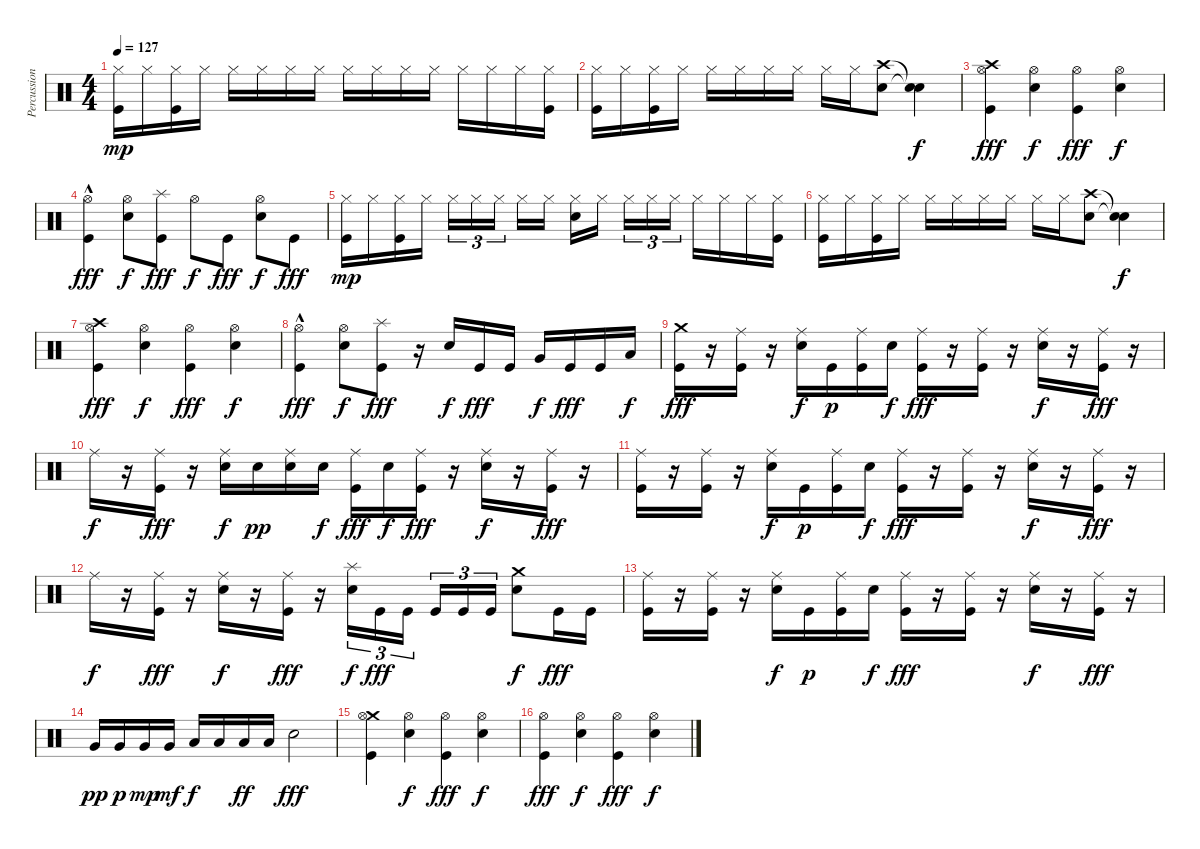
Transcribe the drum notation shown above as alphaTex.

\track ("Percussion" "Percussion") {instrument percussion}
\staff {score}
\articulation defaults
\ts (4 4)
\tempo 127
\clef neutral
\ks c
("Kick (hit)" "Hi-Hat (closed)").16{dy mp} "Hi-Hat (closed)".16 ("Kick (hit)" "Hi-Hat (closed)").16 "Hi-Hat (closed)".16 "Hi-Hat (closed)".16 "Hi-Hat (closed)".16 "Hi-Hat (closed)".16 "Hi-Hat (closed)".16 "Hi-Hat (closed)".16 "Hi-Hat (closed)".16 "Hi-Hat (closed)".16 "Hi-Hat (closed)".16 "Hi-Hat (closed)".16 "Hi-Hat (closed)".16 "Hi-Hat (closed)".16 ("Kick (hit)" "Hi-Hat (closed)").16 |
("Kick (hit)" "Hi-Hat (closed)").16 "Hi-Hat (closed)".16 ("Kick (hit)" "Hi-Hat (closed)").16 "Hi-Hat (closed)".16 "Hi-Hat (closed)".16 "Hi-Hat (closed)".16 "Hi-Hat (closed)".16 "Hi-Hat (closed)".16 "Hi-Hat (closed)".16 "Hi-Hat (closed)".16 ("Crash high (hit)" "Electric Snare (hit)").8 ("Snare (hit)"{t} "Snare (hit)"{t}).4{dy f} |
("Crash high (hit)" "Hi-Hat (open)" "Kick (hit)").4{dy fff} ("Electric Snare (hit)" "Hi-Hat (open)").4{dy f} ("Hi-Hat (open)" "Kick (hit)").4{dy fff} ("Electric Snare (hit)" "Hi-Hat (open)").4{dy f} |
("Hi-Hat (open)" "Kick (hit)"{hac}).4{dy fff} ("Electric Snare (hit)" "Hi-Hat (open)").8{dy f} ("Splash (hit)" "Kick (hit)").8{dy fff} "Hi-Hat (open)".8{dy f} "Kick (hit)".8{dy fff} ("Hi-Hat (open)" "Electric Snare (hit)").8{dy f} "Kick (hit)".8{dy fff} |
("Kick (hit)" "Hi-Hat (closed)").16{dy mp} "Hi-Hat (closed)".16 ("Kick (hit)" "Hi-Hat (closed)").16 "Hi-Hat (closed)".16 "Hi-Hat (closed)".16{tu (3 2)} "Hi-Hat (closed)".16{tu (3 2)} "Hi-Hat (closed)".16{tu (3 2)} "Hi-Hat (closed)".16 "Hi-Hat (closed)".16 ("Electric Snare (hit)" "Hi-Hat (closed)").16 "Hi-Hat (closed)".16 "Hi-Hat (closed)".16{tu (3 2)} "Hi-Hat (closed)".16{tu (3 2)} "Hi-Hat (closed)".16{tu (3 2)} "Hi-Hat (closed)".16 "Hi-Hat (closed)".16 "Hi-Hat (closed)".16 ("Kick (hit)" "Hi-Hat (closed)").16 |
("Kick (hit)" "Hi-Hat (closed)").16 "Hi-Hat (closed)".16 ("Kick (hit)" "Hi-Hat (closed)").16 "Hi-Hat (closed)".16 "Hi-Hat (closed)".16 "Hi-Hat (closed)".16 "Hi-Hat (closed)".16 "Hi-Hat (closed)".16 "Hi-Hat (closed)".16 "Hi-Hat (closed)".16 ("Crash high (hit)" "Electric Snare (hit)").8 ("Snare (hit)"{t} "Snare (hit)"{t}).4{dy f} |
("Crash high (hit)" "Hi-Hat (open)" "Kick (hit)").4{dy fff} ("Electric Snare (hit)" "Hi-Hat (open)").4{dy f} ("Hi-Hat (open)" "Kick (hit)").4{dy fff} ("Electric Snare (hit)" "Hi-Hat (open)").4{dy f} |
("Hi-Hat (open)" "Kick (hit)"{hac}).4{dy fff} ("Electric Snare (hit)" "Hi-Hat (open)").8{dy f} ("Splash (hit)" "Kick (hit)").8{dy fff} r.16 "Electric Snare (hit)".16{dy f} "Kick (hit)".16{dy fff} "Kick (hit)".16 "Very Low Tom (hit)".16{dy f} "Kick (hit)".16{dy fff} "Kick (hit)".16 "Low Floor Tom (hit)".16{dy f} |
("Crash medium (hit)" "Kick (hit)").16{dy fff} r.16 ("Ride (middle)" "Kick (hit)").16 r.16 ("Ride (middle)" "Electric Snare (hit)").16{dy f} "Kick (hit)".16{dy p} ("Ride (middle)" "Kick (hit)").16 "Electric Snare (hit)".16{dy f} ("Ride (middle)" "Kick (hit)").16{dy fff} r.16 ("Ride (middle)" "Kick (hit)").16 r.16 ("Ride (middle)" "Electric Snare (hit)").16{dy f} r.16 ("Ride (middle)" "Kick (hit)").16{dy fff} r.16 |
"Ride (middle)".16{dy f} r.16 ("Ride (middle)" "Kick (hit)").16{dy fff} r.16 ("Ride (middle)" "Electric Snare (hit)").16{dy f} "Electric Snare (hit)".16{dy pp} ("Ride (middle)" "Electric Snare (hit)").16 "Electric Snare (hit)".16{dy f} ("Ride (middle)" "Kick (hit)").16{dy fff} "Electric Snare (hit)".16{dy f} ("Ride (middle)" "Kick (hit)").16{dy fff} r.16 ("Ride (middle)" "Electric Snare (hit)").16{dy f} r.16 ("Ride (middle)" "Kick (hit)").16{dy fff} r.16 |
("Ride (middle)" "Kick (hit)").16 r.16 ("Ride (middle)" "Kick (hit)").16 r.16 ("Ride (middle)" "Electric Snare (hit)").16{dy f} "Kick (hit)".16{dy p} ("Ride (middle)" "Kick (hit)").16 "Electric Snare (hit)".16{dy f} ("Ride (middle)" "Kick (hit)").16{dy fff} r.16 ("Ride (middle)" "Kick (hit)").16 r.16 ("Ride (middle)" "Electric Snare (hit)").16{dy f} r.16 ("Ride (middle)" "Kick (hit)").16{dy fff} r.16 |
"Ride (middle)".16{dy f} r.16 ("Ride (middle)" "Kick (hit)").16{dy fff} r.16 ("Ride (middle)" "Electric Snare (hit)").16{dy f} r.16 ("Ride (middle)" "Kick (hit)").16{dy fff} r.16 ("Splash (hit)" "Electric Snare (hit)").16{tu (3 2) dy f} "Kick (hit)".16{tu (3 2) dy fff} "Kick (hit)".16{tu (3 2)} "Kick (hit)".16{tu (3 2)} "Kick (hit)".16{tu (3 2)} "Kick (hit)".16{tu (3 2)} ("Crash medium (hit)" "Electric Snare (hit)").8{dy f} "Kick (hit)".16{dy fff} "Kick (hit)".16 |
("Ride (middle)" "Kick (hit)").16 r.16 ("Ride (middle)" "Kick (hit)").16 r.16 ("Ride (middle)" "Electric Snare (hit)").16{dy f} "Kick (hit)".16{dy p} ("Ride (middle)" "Kick (hit)").16 "Electric Snare (hit)".16{dy f} ("Ride (middle)" "Kick (hit)").16{dy fff} r.16 ("Ride (middle)" "Kick (hit)").16 r.16 ("Ride (middle)" "Electric Snare (hit)").16{dy f} r.16 ("Ride (middle)" "Kick (hit)").16{dy fff} r.16 |
"Very Low Tom (hit)".16{dy pp} "Very Low Tom (hit)".16{dy p} "Very Low Tom (hit)".16{dy mp} "Very Low Tom (hit)".16{dy mf} "Low Floor Tom (hit)".16{dy f} "Low Floor Tom (hit)".16 "Low Floor Tom (hit)".16{dy ff} "Low Floor Tom (hit)".16 "Electric Snare (hit)".2{dy fff} |
("Crash medium (hit)" "Hi-Hat (open)" "Kick (hit)").4 ("Electric Snare (hit)" "Hi-Hat (open)").4{dy f} ("Hi-Hat (open)" "Kick (hit)").4{dy fff} ("Electric Snare (hit)" "Hi-Hat (open)").4{dy f} |
("Hi-Hat (open)" "Kick (hit)").4{dy fff} ("Electric Snare (hit)" "Hi-Hat (open)").4{dy f} ("Hi-Hat (open)" "Kick (hit)").4{dy fff} ("Electric Snare (hit)" "Hi-Hat (open)").4{dy f}
